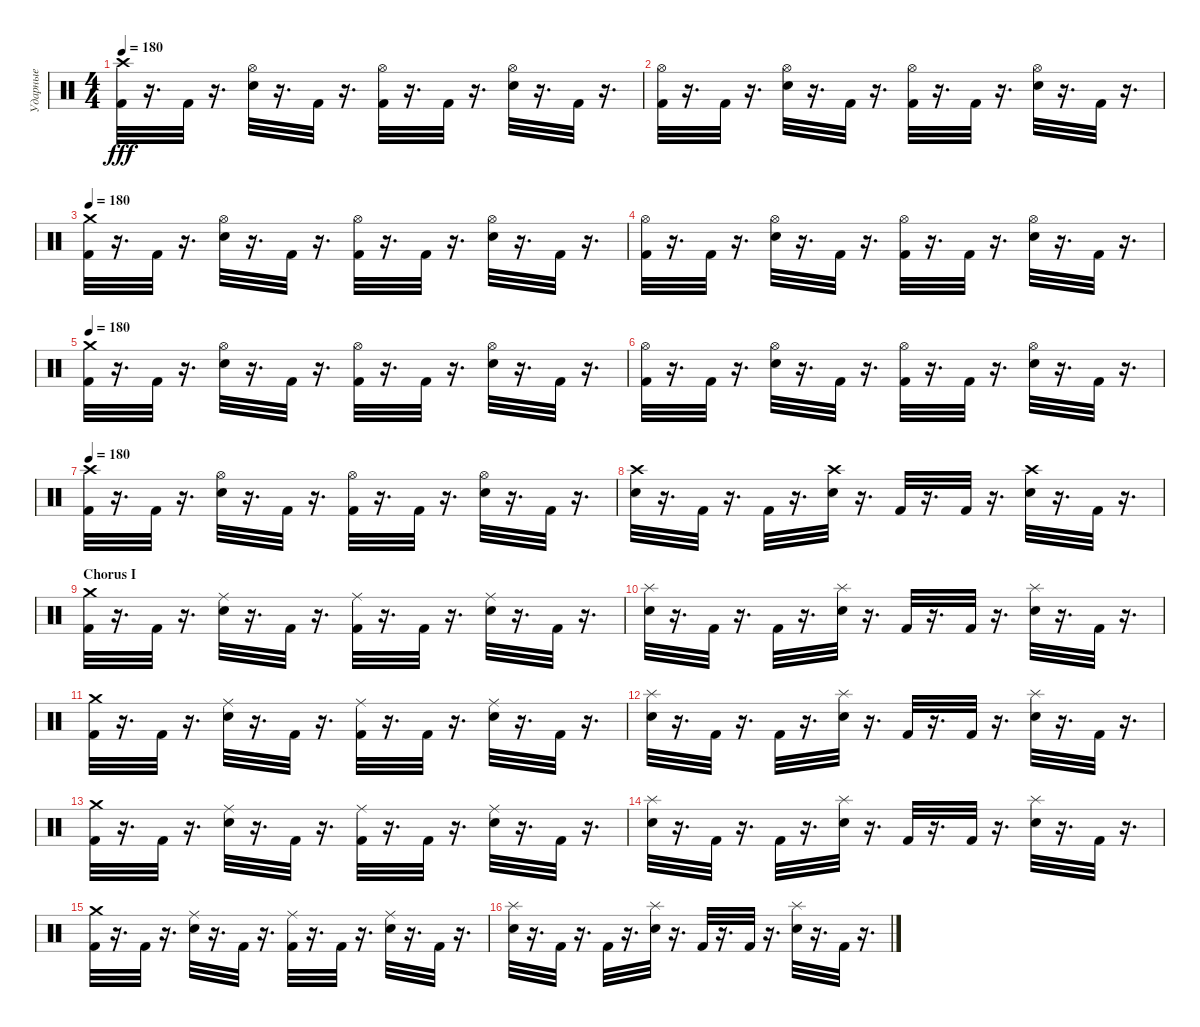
\track ("Ударные" "Ударные") {instrument percussion}
\staff {score}
\articulation defaults
\ts (4 4)
\tempo 180
\clef neutral
\ks c
("Kick (hit) 2" "Crash high (hit)").32{dy fff} r.16{d} "Kick (hit) 2".32 r.16{d} ("Snare (hit) 2" "Hi-Hat (open)").32 r.16{d} "Kick (hit) 2".32 r.16{d} ("Kick (hit) 2" "Hi-Hat (open)").32 r.16{d} "Kick (hit) 2".32 r.16{d} ("Snare (hit) 2" "Hi-Hat (open)").32 r.16{d} "Kick (hit) 2".32 r.16{d} |
("Hi-Hat (open)" "Kick (hit) 2").32 r.16{d} "Kick (hit) 2".32 r.16{d} ("Snare (hit) 2" "Hi-Hat (open)").32 r.16{d} "Kick (hit) 2".32 r.16{d} ("Hi-Hat (open)" "Kick (hit) 2").32 r.16{d} "Kick (hit) 2".32 r.16{d} ("Hi-Hat (open)" "Snare (hit) 2").32 r.16{d} "Kick (hit) 2".32 r.16{d} |
\tempo 180
("Crash medium (hit)" "Kick (hit) 2").32 r.16{d} "Kick (hit) 2".32 r.16{d} ("Hi-Hat (open)" "Snare (hit) 2").32 r.16{d} "Kick (hit) 2".32 r.16{d} ("Kick (hit) 2" "Hi-Hat (open)").32 r.16{d} "Kick (hit) 2".32 r.16{d} ("Hi-Hat (open)" "Snare (hit) 2").32 r.16{d} "Kick (hit) 2".32 r.16{d} |
("Kick (hit) 2" "Hi-Hat (open)").32 r.16{d} "Kick (hit) 2".32 r.16{d} ("Snare (hit) 2" "Hi-Hat (open)").32 r.16{d} "Kick (hit) 2".32 r.16{d} ("Kick (hit) 2" "Hi-Hat (open)").32 r.16{d} "Kick (hit) 2".32 r.16{d} ("Hi-Hat (open)" "Snare (hit) 2").32 r.16{d} "Kick (hit) 2".32 r.16{d} |
\tempo 180
("Crash medium (hit)" "Kick (hit) 2").32 r.16{d} "Kick (hit) 2".32 r.16{d} ("Snare (hit) 2" "Hi-Hat (open)").32 r.16{d} "Kick (hit) 2".32 r.16{d} ("Kick (hit) 2" "Hi-Hat (open)").32 r.16{d} "Kick (hit) 2".32 r.16{d} ("Snare (hit) 2" "Hi-Hat (open)").32 r.16{d} "Kick (hit) 2".32 r.16{d} |
("Kick (hit) 2" "Hi-Hat (open)").32 r.16{d} "Kick (hit) 2".32 r.16{d} ("Hi-Hat (open)" "Snare (hit) 2").32 r.16{d} "Kick (hit) 2".32 r.16{d} ("Hi-Hat (open)" "Kick (hit) 2").32 r.16{d} "Kick (hit) 2".32 r.16{d} ("Hi-Hat (open)" "Snare (hit) 2").32 r.16{d} "Kick (hit) 2".32 r.16{d} |
\tempo 180
("Crash high (hit)" "Kick (hit) 2").32 r.16{d} "Kick (hit) 2".32 r.16{d} ("Snare (hit) 2" "Hi-Hat (open)").32 r.16{d} "Kick (hit) 2".32 r.16{d} ("Kick (hit) 2" "Hi-Hat (open)").32 r.16{d} "Kick (hit) 2".32 r.16{d} ("Snare (hit) 2" "Hi-Hat (open)").32 r.16{d} "Kick (hit) 2".32 r.16{d} |
("Snare (hit) 2" "Crash high (hit)").32 r.16{d} "Kick (hit) 2".32 r.16{d} "Kick (hit) 2".32 r.16{d} ("Snare (hit) 2" "Crash high (hit)").32 r.16{d} "Kick (hit) 2".32 r.16{d} "Kick (hit) 2".32 r.16{d} ("Snare (hit) 2" "Crash high (hit)").32 r.16{d} "Kick (hit) 2".32 r.16{d} |
\section ("" "Chorus I")
("Crash medium (hit)" "Kick (hit) 2").32 r.16{d} "Kick (hit) 2".32 r.16{d} ("Ride (middle)" "Snare (hit) 2").32 r.16{d} "Kick (hit) 2".32 r.16{d} ("Kick (hit) 2" "Ride (middle)").32 r.16{d} "Kick (hit) 2".32 r.16{d} ("Snare (hit) 2" "Ride (middle)").32 r.16{d} "Kick (hit) 2".32 r.16{d} |
("Snare (hit) 2" "Splash (hit)").32 r.16{d} "Kick (hit) 2".32 r.16{d} "Kick (hit) 2".32 r.16{d} ("Splash (hit)" "Snare (hit) 2").32 r.16{d} "Kick (hit) 2".32 r.16{d} "Kick (hit) 2".32 r.16{d} ("Splash (hit)" "Snare (hit) 2").32 r.16{d} "Kick (hit) 2".32 r.16{d} |
("Crash medium (hit)" "Kick (hit) 2").32 r.16{d} "Kick (hit) 2".32 r.16{d} ("Ride (middle)" "Snare (hit) 2").32 r.16{d} "Kick (hit) 2".32 r.16{d} ("Ride (middle)" "Kick (hit) 2").32 r.16{d} "Kick (hit) 2".32 r.16{d} ("Snare (hit) 2" "Ride (middle)").32 r.16{d} "Kick (hit) 2".32 r.16{d} |
("Snare (hit) 2" "Splash (hit)").32 r.16{d} "Kick (hit) 2".32 r.16{d} "Kick (hit) 2".32 r.16{d} ("Splash (hit)" "Snare (hit) 2").32 r.16{d} "Kick (hit) 2".32 r.16{d} "Kick (hit) 2".32 r.16{d} ("Snare (hit) 2" "Splash (hit)").32 r.16{d} "Kick (hit) 2".32 r.16{d} |
("Kick (hit) 2" "Crash medium (hit)").32 r.16{d} "Kick (hit) 2".32 r.16{d} ("Snare (hit) 2" "Ride (middle)").32 r.16{d} "Kick (hit) 2".32 r.16{d} ("Kick (hit) 2" "Ride (middle)").32 r.16{d} "Kick (hit) 2".32 r.16{d} ("Snare (hit) 2" "Ride (middle)").32 r.16{d} "Kick (hit) 2".32 r.16{d} |
("Splash (hit)" "Snare (hit) 2").32 r.16{d} "Kick (hit) 2".32 r.16{d} "Kick (hit) 2".32 r.16{d} ("Splash (hit)" "Snare (hit) 2").32 r.16{d} "Kick (hit) 2".32 r.16{d} "Kick (hit) 2".32 r.16{d} ("Snare (hit) 2" "Splash (hit)").32 r.16{d} "Kick (hit) 2".32 r.16{d} |
("Crash medium (hit)" "Kick (hit) 2").32 r.16{d} "Kick (hit) 2".32 r.16{d} ("Ride (middle)" "Snare (hit) 2").32 r.16{d} "Kick (hit) 2".32 r.16{d} ("Ride (middle)" "Kick (hit) 2").32 r.16{d} "Kick (hit) 2".32 r.16{d} ("Snare (hit) 2" "Ride (middle)").32 r.16{d} "Kick (hit) 2".32 r.16{d} |
("Snare (hit) 2" "Splash (hit)").32 r.16{d} "Kick (hit) 2".32 r.16{d} "Kick (hit) 2".32 r.16{d} ("Splash (hit)" "Snare (hit) 2").32 r.16{d} "Kick (hit) 2".32 r.16{d} "Kick (hit) 2".32 r.16{d} ("Splash (hit)" "Snare (hit) 2").32 r.16{d} "Kick (hit) 2".32 r.16{d}
